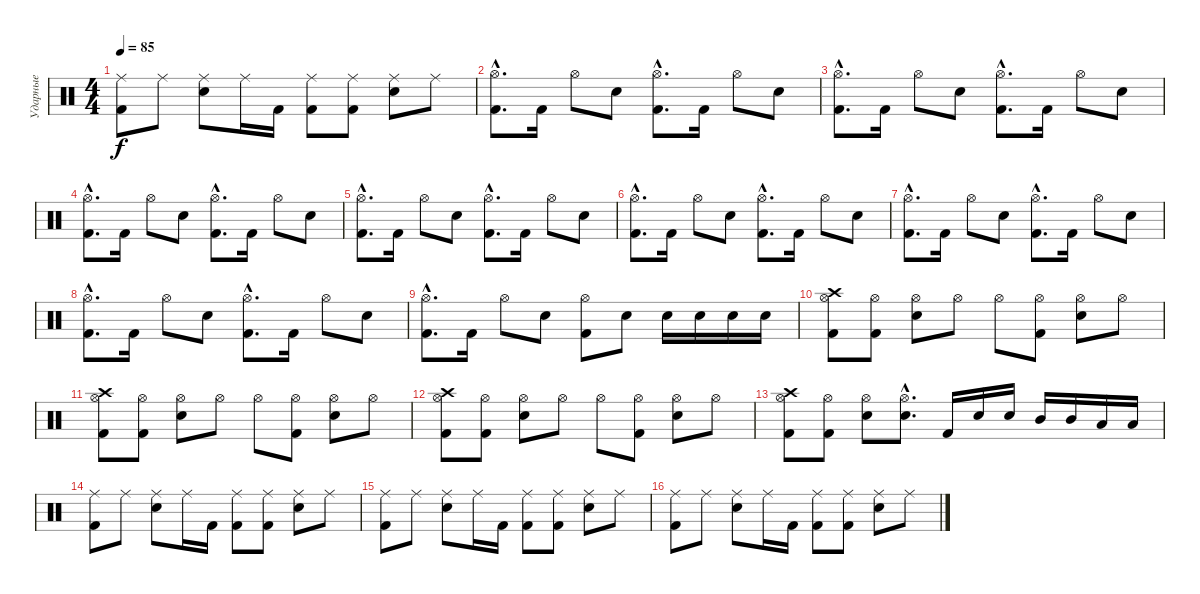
\track ("Ударные" "Ударные") {instrument percussion}
\staff {score}
\articulation defaults
\ts (4 4)
\tempo 85
\clef neutral
\ks c
("Ride (middle)" "Kick (hit) 2").8{dy f} "Ride (middle)".8 ("Ride (middle)" "Snare (hit) 2").8 "Ride (middle)".16 "Kick (hit) 2".16 ("Ride (middle)" "Kick (hit) 2").8 ("Ride (middle)" "Kick (hit) 2").8 ("Ride (middle)" "Snare (hit) 2").8 "Ride (middle)".8 |
("Hi-Hat (open)"{hac} "Kick (hit) 2"{hac}).8{d} "Kick (hit) 2".16 "Hi-Hat (open)".8 "Snare (hit) 2".8 ("Hi-Hat (open)"{hac} "Kick (hit) 2"{hac}).8{d} "Kick (hit) 2".16 "Hi-Hat (open)".8 "Snare (hit) 2".8 |
("Hi-Hat (open)"{hac} "Kick (hit) 2"{hac}).8{d} "Kick (hit) 2".16 "Hi-Hat (open)".8 "Snare (hit) 2".8 ("Hi-Hat (open)"{hac} "Kick (hit) 2"{hac}).8{d} "Kick (hit) 2".16 "Hi-Hat (open)".8 "Snare (hit) 2".8 |
("Hi-Hat (open)"{hac} "Kick (hit) 2"{hac}).8{d} "Kick (hit) 2".16 "Hi-Hat (open)".8 "Snare (hit) 2".8 ("Hi-Hat (open)"{hac} "Kick (hit) 2"{hac}).8{d} "Kick (hit) 2".16 "Hi-Hat (open)".8 "Snare (hit) 2".8 |
("Hi-Hat (open)"{hac} "Kick (hit) 2"{hac}).8{d} "Kick (hit) 2".16 "Hi-Hat (open)".8 "Snare (hit) 2".8 ("Hi-Hat (open)"{hac} "Kick (hit) 2"{hac}).8{d} "Kick (hit) 2".16 "Hi-Hat (open)".8 "Snare (hit) 2".8 |
("Hi-Hat (open)"{hac} "Kick (hit) 2"{hac}).8{d} "Kick (hit) 2".16 "Hi-Hat (open)".8 "Snare (hit) 2".8 ("Hi-Hat (open)"{hac} "Kick (hit) 2"{hac}).8{d} "Kick (hit) 2".16 "Hi-Hat (open)".8 "Snare (hit) 2".8 |
("Hi-Hat (open)"{hac} "Kick (hit) 2"{hac}).8{d} "Kick (hit) 2".16 "Hi-Hat (open)".8 "Snare (hit) 2".8 ("Hi-Hat (open)"{hac} "Kick (hit) 2"{hac}).8{d} "Kick (hit) 2".16 "Hi-Hat (open)".8 "Snare (hit) 2".8 |
("Hi-Hat (open)"{hac} "Kick (hit) 2"{hac}).8{d} "Kick (hit) 2".16 "Hi-Hat (open)".8 "Snare (hit) 2".8 ("Hi-Hat (open)"{hac} "Kick (hit) 2"{hac}).8{d} "Kick (hit) 2".16 "Hi-Hat (open)".8 "Snare (hit) 2".8 |
("Hi-Hat (open)"{hac} "Kick (hit) 2"{hac}).8{d} "Kick (hit) 2".16 "Hi-Hat (open)".8 "Snare (hit) 2".8 ("Hi-Hat (open)" "Kick (hit) 2").8 "Snare (hit) 2".8 "Snare (hit) 2".16 "Snare (hit) 2".16 "Snare (hit) 2".16 "Snare (hit) 2".16 |
("Hi-Hat (open)" "Crash high (hit)" "Kick (hit) 2").8 ("Hi-Hat (open)" "Kick (hit) 2").8 ("Hi-Hat (open)" "Snare (hit) 2").8 "Hi-Hat (open)".8 "Hi-Hat (open)".8 ("Hi-Hat (open)" "Kick (hit) 2").8 ("Hi-Hat (open)" "Snare (hit) 2").8 "Hi-Hat (open)".8 |
("Hi-Hat (open)" "Crash high (hit)" "Kick (hit) 2").8 ("Hi-Hat (open)" "Kick (hit) 2").8 ("Hi-Hat (open)" "Snare (hit) 2").8 "Hi-Hat (open)".8 "Hi-Hat (open)".8 ("Hi-Hat (open)" "Kick (hit) 2").8 ("Hi-Hat (open)" "Snare (hit) 2").8 "Hi-Hat (open)".8 |
("Hi-Hat (open)" "Crash high (hit)" "Kick (hit) 2").8 ("Hi-Hat (open)" "Kick (hit) 2").8 ("Hi-Hat (open)" "Snare (hit) 2").8 "Hi-Hat (open)".8 "Hi-Hat (open)".8 ("Hi-Hat (open)" "Kick (hit) 2").8 ("Hi-Hat (open)" "Snare (hit) 2").8 "Hi-Hat (open)".8 |
("Hi-Hat (open)" "Crash high (hit)" "Kick (hit) 2").8 ("Hi-Hat (open)" "Kick (hit) 2").8 ("Hi-Hat (open)" "Snare (hit) 2").8 ("Hi-Hat (open)"{hac} "Snare (hit) 2"{hac}).8{d} "Kick (hit) 2".16 "Snare (hit) 2".16 "Snare (hit) 2".16 "Mid Tom (hit)".16 "Mid Tom (hit)".16 "Low Tom (hit)".16 "Low Tom (hit)".16 |
("Ride (middle)" "Kick (hit) 2").8 "Ride (middle)".8 ("Ride (middle)" "Snare (hit) 2").8 "Ride (middle)".16 "Kick (hit) 2".16 ("Ride (middle)" "Kick (hit) 2").8 ("Ride (middle)" "Kick (hit) 2").8 ("Ride (middle)" "Snare (hit) 2").8 "Ride (middle)".8 |
("Ride (middle)" "Kick (hit) 2").8 "Ride (middle)".8 ("Ride (middle)" "Snare (hit) 2").8 "Ride (middle)".16 "Kick (hit) 2".16 ("Ride (middle)" "Kick (hit) 2").8 ("Ride (middle)" "Kick (hit) 2").8 ("Ride (middle)" "Snare (hit) 2").8 "Ride (middle)".8 |
("Ride (middle)" "Kick (hit) 2").8 "Ride (middle)".8 ("Ride (middle)" "Snare (hit) 2").8 "Ride (middle)".16 "Kick (hit) 2".16 ("Ride (middle)" "Kick (hit) 2").8 ("Ride (middle)" "Kick (hit) 2").8 ("Ride (middle)" "Snare (hit) 2").8 "Ride (middle)".8
